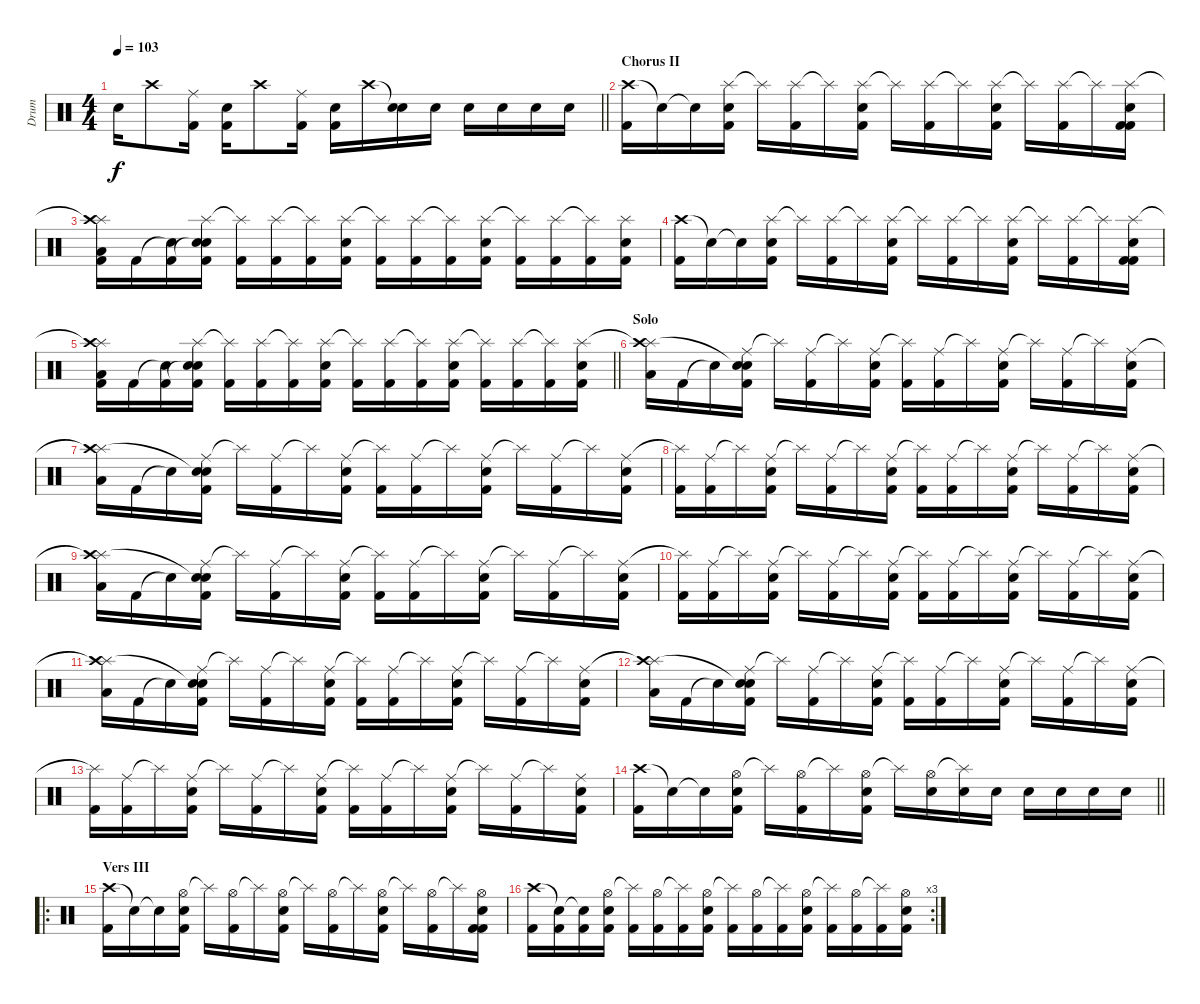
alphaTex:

\track ("Drum" "Drum") {instrument percussion}
\staff {score}
\articulation defaults
\ts (4 4)
\tempo 103
\clef neutral
\barLineRight lightlight
\ks c "Snare (hit)"{t}.16{dy f} "Crash high (hit)".8
("Ride (middle)" "Kick (hit) 2").16 ("Electric Snare (hit)" "Kick (hit) 2").16 "Crash high (hit)".8 ("Ride (middle)" "Kick (hit) 2").16 ("Electric Snare (hit)" "Kick (hit) 2").16 "Crash high (hit)".16 ("Snare (hit)"{t} "Electric Snare (hit)").16 "Electric Snare (hit)".16 "Electric Snare (hit)".16 "Electric Snare (hit)".16 "Electric Snare (hit)".16 "Electric Snare (hit)".16 |
\section ("" "Chorus II")
("Crash high (hit)" "Kick (hit) 2").16 "Snare (hit)"{t}.16 "Snare (hit)"{t}.16 ("Splash (hit)" "Electric Snare (hit)" "Kick (hit) 2").16 "Splash (hit)"{t}.16 ("Splash (hit)" "Kick (hit) 2").16 "Splash (hit)"{t}.16 ("Splash (hit)" "Electric Snare (hit)" "Kick (hit) 2").16 "Splash (hit)"{t}.16 ("Splash (hit)" "Kick (hit) 2").16 "Splash (hit)"{t}.16 ("Splash (hit)" "Electric Snare (hit)" "Kick (hit) 2").16 "Splash (hit)"{t}.16 ("Splash (hit)" "Kick (hit) 2").16 "Splash (hit)"{t}.16 ("Splash (hit)" "Electric Snare (hit)" "Kick (hit) 2" "Kick (hit) 2").16 |
("Splash (hit)"{t} "Crash high (hit)" "Low Tom (hit)" "Kick (hit) 2").16 "Kick (hit) 2".16 ("Snare (hit)"{t} "Kick (hit) 2").16 ("Splash (hit)" "Snare (hit)"{t} "Electric Snare (hit)" "Kick (hit) 2").16 ("Splash (hit)"{t} "Kick (hit) 2").16 ("Splash (hit)" "Kick (hit) 2").16 ("Splash (hit)"{t} "Kick (hit) 2").16 ("Splash (hit)" "Electric Snare (hit)" "Kick (hit) 2").16 ("Splash (hit)"{t} "Kick (hit) 2").16 ("Splash (hit)" "Kick (hit) 2").16 ("Splash (hit)"{t} "Kick (hit) 2").16 ("Splash (hit)" "Electric Snare (hit)" "Kick (hit) 2").16 ("Splash (hit)"{t} "Kick (hit) 2").16 ("Splash (hit)" "Kick (hit) 2").16 ("Splash (hit)"{t} "Kick (hit) 2").16 ("Splash (hit)" "Electric Snare (hit)" "Kick (hit) 2").16 |
("Crash high (hit)" "Kick (hit) 2").16 "Snare (hit)"{t}.16 "Snare (hit)"{t}.16 ("Splash (hit)" "Electric Snare (hit)" "Kick (hit) 2").16 "Splash (hit)"{t}.16 ("Splash (hit)" "Kick (hit) 2").16 "Splash (hit)"{t}.16 ("Splash (hit)" "Electric Snare (hit)" "Kick (hit) 2").16 "Splash (hit)"{t}.16 ("Splash (hit)" "Kick (hit) 2").16 "Splash (hit)"{t}.16 ("Splash (hit)" "Electric Snare (hit)" "Kick (hit) 2").16 "Splash (hit)"{t}.16 ("Splash (hit)" "Kick (hit) 2").16 "Splash (hit)"{t}.16 ("Splash (hit)" "Electric Snare (hit)" "Kick (hit) 2" "Kick (hit) 2").16 |
\barLineRight lightlight
("Splash (hit)"{t} "Crash high (hit)" "Low Tom (hit)" "Kick (hit) 2").16 "Kick (hit) 2".16 ("Snare (hit)"{t} "Kick (hit) 2").16 ("Splash (hit)" "Snare (hit)"{t} "Electric Snare (hit)" "Kick (hit) 2").16 ("Splash (hit)"{t} "Kick (hit) 2").16 ("Splash (hit)" "Kick (hit) 2").16 ("Splash (hit)"{t} "Kick (hit) 2").16 ("Splash (hit)" "Electric Snare (hit)" "Kick (hit) 2").16 ("Splash (hit)"{t} "Kick (hit) 2").16 ("Splash (hit)" "Kick (hit) 2").16 ("Splash (hit)"{t} "Kick (hit) 2").16 ("Splash (hit)" "Electric Snare (hit)" "Kick (hit) 2").16 ("Splash (hit)"{t} "Kick (hit) 2").16 ("Splash (hit)" "Kick (hit) 2").16 ("Splash (hit)"{t} "Kick (hit) 2").16 ("Splash (hit)" "Electric Snare (hit)" "Kick (hit) 2").16 |
\section ("" "Solo")
("Splash (hit)"{t} "Crash high (hit)" "Low Tom (hit)").16 "Kick (hit) 2".16 "Snare (hit)"{t}.16 ("Ride (middle)" "Snare (hit)"{t} "Electric Snare (hit)" "Kick (hit) 2").16 "Splash (hit)"{t}.16 ("Ride (middle)" "Kick (hit) 2").16 "Splash (hit)"{t}.16 ("Ride (middle)" "Electric Snare (hit)" "Kick (hit) 2").16 ("Splash (hit)"{t} "Kick (hit) 2").16 ("Ride (middle)" "Kick (hit) 2").16 "Splash (hit)"{t}.16 ("Ride (middle)" "Electric Snare (hit)" "Kick (hit) 2").16 "Splash (hit)"{t}.16 ("Ride (middle)" "Kick (hit) 2").16 "Splash (hit)"{t}.16 ("Ride (middle)" "Electric Snare (hit)" "Kick (hit) 2").16 |
("Splash (hit)"{t} "Crash high (hit)" "Low Tom (hit)").16 "Kick (hit) 2".16 "Snare (hit)"{t}.16 ("Ride (middle)" "Snare (hit)"{t} "Electric Snare (hit)" "Kick (hit) 2").16 "Splash (hit)"{t}.16 ("Ride (middle)" "Kick (hit) 2").16 "Splash (hit)"{t}.16 ("Ride (middle)" "Electric Snare (hit)" "Kick (hit) 2").16 ("Splash (hit)"{t} "Kick (hit) 2").16 ("Ride (middle)" "Kick (hit) 2").16 "Splash (hit)"{t}.16 ("Ride (middle)" "Electric Snare (hit)" "Kick (hit) 2").16 "Splash (hit)"{t}.16 ("Ride (middle)" "Kick (hit) 2").16 "Splash (hit)"{t}.16 ("Ride (middle)" "Electric Snare (hit)" "Kick (hit) 2").16 |
("Splash (hit)"{t} "Kick (hit) 2").16 ("Ride (middle)" "Kick (hit) 2").16 "Splash (hit)"{t}.16 ("Ride (middle)" "Electric Snare (hit)" "Kick (hit) 2").16 "Splash (hit)"{t}.16 ("Ride (middle)" "Kick (hit) 2").16 "Splash (hit)"{t}.16 ("Ride (middle)" "Electric Snare (hit)" "Kick (hit) 2").16 ("Splash (hit)"{t} "Kick (hit) 2").16 ("Ride (middle)" "Kick (hit) 2").16 "Splash (hit)"{t}.16 ("Ride (middle)" "Electric Snare (hit)" "Kick (hit) 2").16 "Splash (hit)"{t}.16 ("Ride (middle)" "Kick (hit) 2").16 "Splash (hit)"{t}.16 ("Ride (middle)" "Electric Snare (hit)" "Kick (hit) 2").16 |
("Splash (hit)"{t} "Crash high (hit)" "Low Tom (hit)").16 "Kick (hit) 2".16 "Snare (hit)"{t}.16 ("Ride (middle)" "Snare (hit)"{t} "Electric Snare (hit)" "Kick (hit) 2").16 "Splash (hit)"{t}.16 ("Ride (middle)" "Kick (hit) 2").16 "Splash (hit)"{t}.16 ("Ride (middle)" "Electric Snare (hit)" "Kick (hit) 2").16 ("Splash (hit)"{t} "Kick (hit) 2").16 ("Ride (middle)" "Kick (hit) 2").16 "Splash (hit)"{t}.16 ("Ride (middle)" "Electric Snare (hit)" "Kick (hit) 2").16 "Splash (hit)"{t}.16 ("Ride (middle)" "Kick (hit) 2").16 "Splash (hit)"{t}.16 ("Ride (middle)" "Electric Snare (hit)" "Kick (hit) 2").16 |
("Splash (hit)"{t} "Kick (hit) 2").16 ("Ride (middle)" "Kick (hit) 2").16 "Splash (hit)"{t}.16 ("Ride (middle)" "Electric Snare (hit)" "Kick (hit) 2").16 "Splash (hit)"{t}.16 ("Ride (middle)" "Kick (hit) 2").16 "Splash (hit)"{t}.16 ("Ride (middle)" "Electric Snare (hit)" "Kick (hit) 2").16 ("Splash (hit)"{t} "Kick (hit) 2").16 ("Ride (middle)" "Kick (hit) 2").16 "Splash (hit)"{t}.16 ("Ride (middle)" "Electric Snare (hit)" "Kick (hit) 2").16 "Splash (hit)"{t}.16 ("Ride (middle)" "Kick (hit) 2").16 "Splash (hit)"{t}.16 ("Ride (middle)" "Electric Snare (hit)" "Kick (hit) 2").16 |
("Splash (hit)"{t} "Crash high (hit)" "Low Tom (hit)").16 "Kick (hit) 2".16 "Snare (hit)"{t}.16 ("Ride (middle)" "Snare (hit)"{t} "Electric Snare (hit)" "Kick (hit) 2").16 "Splash (hit)"{t}.16 ("Ride (middle)" "Kick (hit) 2").16 "Splash (hit)"{t}.16 ("Ride (middle)" "Electric Snare (hit)" "Kick (hit) 2").16 ("Splash (hit)"{t} "Kick (hit) 2").16 ("Ride (middle)" "Kick (hit) 2").16 "Splash (hit)"{t}.16 ("Ride (middle)" "Electric Snare (hit)" "Kick (hit) 2").16 "Splash (hit)"{t}.16 ("Ride (middle)" "Kick (hit) 2").16 "Splash (hit)"{t}.16 ("Ride (middle)" "Electric Snare (hit)" "Kick (hit) 2").16 |
("Splash (hit)"{t} "Crash high (hit)" "Low Tom (hit)").16 "Kick (hit) 2".16 "Snare (hit)"{t}.16 ("Ride (middle)" "Snare (hit)"{t} "Electric Snare (hit)" "Kick (hit) 2").16 "Splash (hit)"{t}.16 ("Ride (middle)" "Kick (hit) 2").16 "Splash (hit)"{t}.16 ("Ride (middle)" "Electric Snare (hit)" "Kick (hit) 2").16 ("Splash (hit)"{t} "Kick (hit) 2").16 ("Ride (middle)" "Kick (hit) 2").16 "Splash (hit)"{t}.16 ("Ride (middle)" "Electric Snare (hit)" "Kick (hit) 2").16 "Splash (hit)"{t}.16 ("Ride (middle)" "Kick (hit) 2").16 "Splash (hit)"{t}.16 ("Ride (middle)" "Electric Snare (hit)" "Kick (hit) 2").16 |
("Splash (hit)"{t} "Kick (hit) 2").16 ("Ride (middle)" "Kick (hit) 2").16 "Splash (hit)"{t}.16 ("Ride (middle)" "Electric Snare (hit)" "Kick (hit) 2").16 "Splash (hit)"{t}.16 ("Ride (middle)" "Kick (hit) 2").16 "Splash (hit)"{t}.16 ("Ride (middle)" "Electric Snare (hit)" "Kick (hit) 2").16 ("Splash (hit)"{t} "Kick (hit) 2").16 ("Ride (middle)" "Kick (hit) 2").16 "Splash (hit)"{t}.16 ("Ride (middle)" "Electric Snare (hit)" "Kick (hit) 2").16 "Splash (hit)"{t}.16 ("Ride (middle)" "Kick (hit) 2").16 "Splash (hit)"{t}.16 ("Ride (middle)" "Electric Snare (hit)" "Kick (hit) 2").16 |
\barLineRight lightlight
("Crash high (hit)" "Kick (hit) 2").16 "Snare (hit)"{t}.16 "Snare (hit)"{t}.16 ("Hi-Hat (open)" "Electric Snare (hit)" "Kick (hit) 2").16 "Splash (hit)"{t}.16 ("Hi-Hat (open)" "Kick (hit) 2").16 "Splash (hit)"{t}.16 ("Hi-Hat (open)" "Electric Snare (hit)" "Kick (hit) 2").16 "Splash (hit)"{t}.16 ("Hi-Hat (open)" "Electric Snare (hit)").16 ("Splash (hit)"{t} "Electric Snare (hit)").16 "Electric Snare (hit)".16 "Electric Snare (hit)".16 "Electric Snare (hit)".16 "Electric Snare (hit)".16 "Electric Snare (hit)".16 |
\ro
\section ("" "Vers III")
("Crash high (hit)" "Kick (hit) 2").16 "Snare (hit)"{t}.16 "Snare (hit)"{t}.16 ("Hi-Hat (open)" "Electric Snare (hit)" "Kick (hit) 2").16 "Splash (hit)"{t}.16 ("Hi-Hat (open)" "Kick (hit) 2").16 "Splash (hit)"{t}.16 ("Hi-Hat (open)" "Electric Snare (hit)" "Kick (hit) 2").16 "Splash (hit)"{t}.16 ("Hi-Hat (open)" "Kick (hit) 2").16 "Splash (hit)"{t}.16 ("Hi-Hat (open)" "Electric Snare (hit)" "Kick (hit) 2").16 "Splash (hit)"{t}.16 ("Hi-Hat (open)" "Kick (hit) 2").16 "Splash (hit)"{t}.16 ("Hi-Hat (open)" "Electric Snare (hit)" "Kick (hit) 2" "Kick (hit) 2").16 |
\rc 3
("Crash high (hit)" "Kick (hit) 2").16 ("Snare (hit)"{t} "Kick (hit) 2").16 ("Snare (hit)"{t} "Kick (hit) 2").16 ("Hi-Hat (open)" "Electric Snare (hit)" "Kick (hit) 2").16 ("Splash (hit)"{t} "Kick (hit) 2").16 ("Hi-Hat (open)" "Kick (hit) 2").16 ("Splash (hit)"{t} "Kick (hit) 2").16 ("Hi-Hat (open)" "Electric Snare (hit)" "Kick (hit) 2").16 ("Splash (hit)"{t} "Kick (hit) 2").16 ("Hi-Hat (open)" "Kick (hit) 2").16 ("Splash (hit)"{t} "Kick (hit) 2").16 ("Hi-Hat (open)" "Electric Snare (hit)" "Kick (hit) 2").16 ("Splash (hit)"{t} "Kick (hit) 2").16 ("Hi-Hat (open)" "Kick (hit) 2").16 ("Splash (hit)"{t} "Kick (hit) 2").16 ("Hi-Hat (open)" "Electric Snare (hit)" "Kick (hit) 2").16
